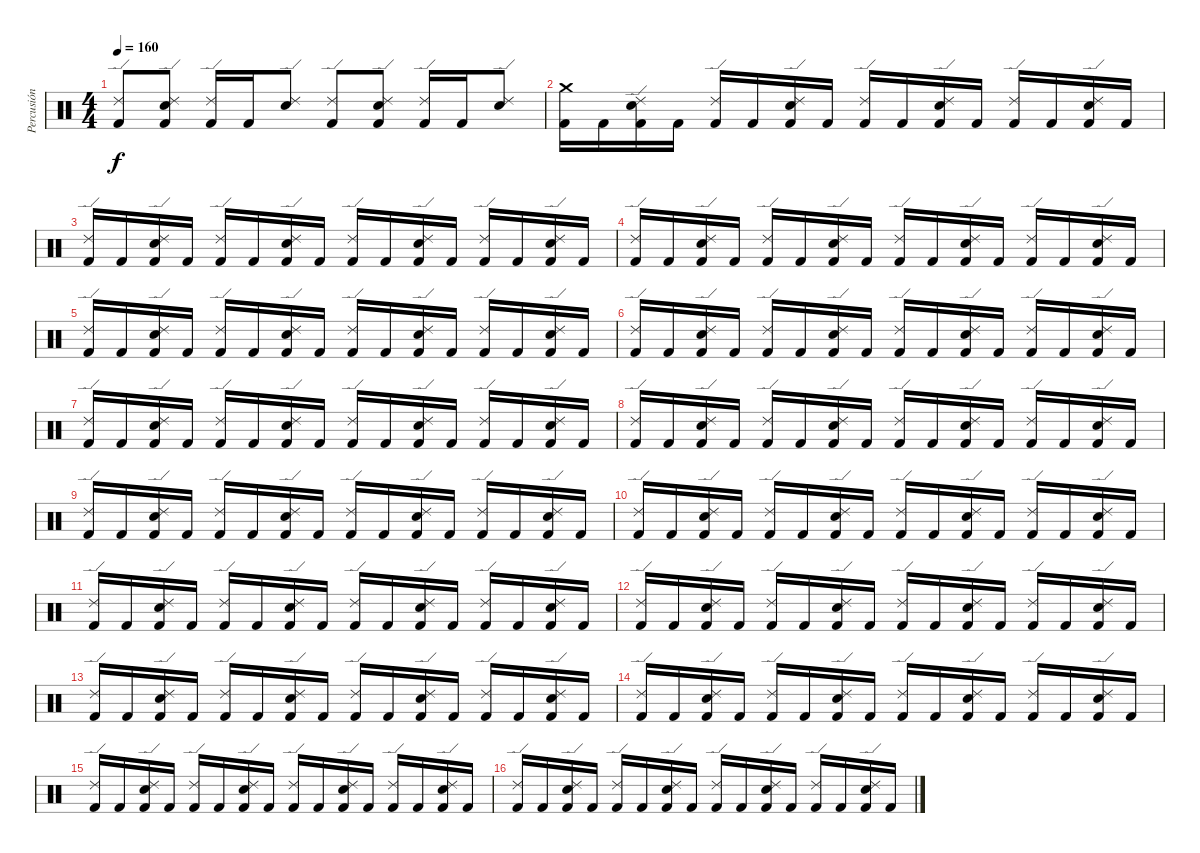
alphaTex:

\track ("Percusión" "Percusión") {instrument percussion}
\staff {score}
\articulation defaults
\ts (4 4)
\tempo 160
\clef neutral
\ks c
("Kick (hit) 2" "Ride (edge) 2").8{dy f} ("Kick (hit) 2" "Snare (hit) 2" "Ride (edge) 2").8 ("Kick (hit) 2" "Ride (edge) 2").16 "Kick (hit) 2".16 ("Snare (hit) 2" "Ride (edge) 2").8 ("Kick (hit) 2" "Ride (edge) 2").8 ("Kick (hit) 2" "Snare (hit) 2" "Ride (edge) 2").8 ("Kick (hit) 2" "Ride (edge) 2").16 "Kick (hit) 2".16 ("Snare (hit) 2" "Ride (edge) 2").8 |
("Kick (hit) 2" "Crash medium (hit)").16 "Kick (hit) 2".16 ("Kick (hit) 2" "Snare (hit) 2" "Ride (edge) 2").16 "Kick (hit) 2".16 ("Kick (hit) 2" "Ride (edge) 2").16 "Kick (hit) 2".16 ("Kick (hit) 2" "Snare (hit) 2" "Ride (edge) 2").16 "Kick (hit) 2".16 ("Kick (hit) 2" "Ride (edge) 2").16 "Kick (hit) 2".16 ("Kick (hit) 2" "Snare (hit) 2" "Ride (edge) 2").16 "Kick (hit) 2".16 ("Kick (hit) 2" "Ride (edge) 2").16 "Kick (hit) 2".16 ("Kick (hit) 2" "Snare (hit) 2" "Ride (edge) 2").16 "Kick (hit) 2".16 |
("Kick (hit) 2" "Ride (edge) 2").16 "Kick (hit) 2".16 ("Kick (hit) 2" "Snare (hit) 2" "Ride (edge) 2").16 "Kick (hit) 2".16 ("Kick (hit) 2" "Ride (edge) 2").16 "Kick (hit) 2".16 ("Kick (hit) 2" "Snare (hit) 2" "Ride (edge) 2").16 "Kick (hit) 2".16 ("Kick (hit) 2" "Ride (edge) 2").16 "Kick (hit) 2".16 ("Kick (hit) 2" "Snare (hit) 2" "Ride (edge) 2").16 "Kick (hit) 2".16 ("Kick (hit) 2" "Ride (edge) 2").16 "Kick (hit) 2".16 ("Kick (hit) 2" "Snare (hit) 2" "Ride (edge) 2").16 "Kick (hit) 2".16 |
("Kick (hit) 2" "Ride (edge) 2").16 "Kick (hit) 2".16 ("Kick (hit) 2" "Snare (hit) 2" "Ride (edge) 2").16 "Kick (hit) 2".16 ("Kick (hit) 2" "Ride (edge) 2").16 "Kick (hit) 2".16 ("Kick (hit) 2" "Snare (hit) 2" "Ride (edge) 2").16 "Kick (hit) 2".16 ("Kick (hit) 2" "Ride (edge) 2").16 "Kick (hit) 2".16 ("Kick (hit) 2" "Snare (hit) 2" "Ride (edge) 2").16 "Kick (hit) 2".16 ("Kick (hit) 2" "Ride (edge) 2").16 "Kick (hit) 2".16 ("Kick (hit) 2" "Snare (hit) 2" "Ride (edge) 2").16 "Kick (hit) 2".16 |
("Kick (hit) 2" "Ride (edge) 2").16 "Kick (hit) 2".16 ("Kick (hit) 2" "Snare (hit) 2" "Ride (edge) 2").16 "Kick (hit) 2".16 ("Kick (hit) 2" "Ride (edge) 2").16 "Kick (hit) 2".16 ("Kick (hit) 2" "Snare (hit) 2" "Ride (edge) 2").16 "Kick (hit) 2".16 ("Kick (hit) 2" "Ride (edge) 2").16 "Kick (hit) 2".16 ("Kick (hit) 2" "Snare (hit) 2" "Ride (edge) 2").16 "Kick (hit) 2".16 ("Kick (hit) 2" "Ride (edge) 2").16 "Kick (hit) 2".16 ("Kick (hit) 2" "Snare (hit) 2" "Ride (edge) 2").16 "Kick (hit) 2".16 |
("Kick (hit) 2" "Ride (edge) 2").16 "Kick (hit) 2".16 ("Kick (hit) 2" "Snare (hit) 2" "Ride (edge) 2").16 "Kick (hit) 2".16 ("Kick (hit) 2" "Ride (edge) 2").16 "Kick (hit) 2".16 ("Kick (hit) 2" "Snare (hit) 2" "Ride (edge) 2").16 "Kick (hit) 2".16 ("Kick (hit) 2" "Ride (edge) 2").16 "Kick (hit) 2".16 ("Kick (hit) 2" "Snare (hit) 2" "Ride (edge) 2").16 "Kick (hit) 2".16 ("Kick (hit) 2" "Ride (edge) 2").16 "Kick (hit) 2".16 ("Kick (hit) 2" "Snare (hit) 2" "Ride (edge) 2").16 "Kick (hit) 2".16 |
("Kick (hit) 2" "Ride (edge) 2").16 "Kick (hit) 2".16 ("Kick (hit) 2" "Snare (hit) 2" "Ride (edge) 2").16 "Kick (hit) 2".16 ("Kick (hit) 2" "Ride (edge) 2").16 "Kick (hit) 2".16 ("Kick (hit) 2" "Snare (hit) 2" "Ride (edge) 2").16 "Kick (hit) 2".16 ("Kick (hit) 2" "Ride (edge) 2").16 "Kick (hit) 2".16 ("Kick (hit) 2" "Snare (hit) 2" "Ride (edge) 2").16 "Kick (hit) 2".16 ("Kick (hit) 2" "Ride (edge) 2").16 "Kick (hit) 2".16 ("Kick (hit) 2" "Snare (hit) 2" "Ride (edge) 2").16 "Kick (hit) 2".16 |
("Kick (hit) 2" "Ride (edge) 2").16 "Kick (hit) 2".16 ("Kick (hit) 2" "Snare (hit) 2" "Ride (edge) 2").16 "Kick (hit) 2".16 ("Kick (hit) 2" "Ride (edge) 2").16 "Kick (hit) 2".16 ("Kick (hit) 2" "Snare (hit) 2" "Ride (edge) 2").16 "Kick (hit) 2".16 ("Kick (hit) 2" "Ride (edge) 2").16 "Kick (hit) 2".16 ("Kick (hit) 2" "Snare (hit) 2" "Ride (edge) 2").16 "Kick (hit) 2".16 ("Kick (hit) 2" "Ride (edge) 2").16 "Kick (hit) 2".16 ("Kick (hit) 2" "Snare (hit) 2" "Ride (edge) 2").16 "Kick (hit) 2".16 |
("Kick (hit) 2" "Ride (edge) 2").16 "Kick (hit) 2".16 ("Kick (hit) 2" "Snare (hit) 2" "Ride (edge) 2").16 "Kick (hit) 2".16 ("Kick (hit) 2" "Ride (edge) 2").16 "Kick (hit) 2".16 ("Kick (hit) 2" "Snare (hit) 2" "Ride (edge) 2").16 "Kick (hit) 2".16 ("Kick (hit) 2" "Ride (edge) 2").16 "Kick (hit) 2".16 ("Kick (hit) 2" "Snare (hit) 2" "Ride (edge) 2").16 "Kick (hit) 2".16 ("Kick (hit) 2" "Ride (edge) 2").16 "Kick (hit) 2".16 ("Kick (hit) 2" "Snare (hit) 2" "Ride (edge) 2").16 "Kick (hit) 2".16 |
("Kick (hit) 2" "Ride (edge) 2").16 "Kick (hit) 2".16 ("Kick (hit) 2" "Snare (hit) 2" "Ride (edge) 2").16 "Kick (hit) 2".16 ("Kick (hit) 2" "Ride (edge) 2").16 "Kick (hit) 2".16 ("Kick (hit) 2" "Snare (hit) 2" "Ride (edge) 2").16 "Kick (hit) 2".16 ("Kick (hit) 2" "Ride (edge) 2").16 "Kick (hit) 2".16 ("Kick (hit) 2" "Snare (hit) 2" "Ride (edge) 2").16 "Kick (hit) 2".16 ("Kick (hit) 2" "Ride (edge) 2").16 "Kick (hit) 2".16 ("Kick (hit) 2" "Snare (hit) 2" "Ride (edge) 2").16 "Kick (hit) 2".16 |
("Kick (hit) 2" "Ride (edge) 2").16 "Kick (hit) 2".16 ("Kick (hit) 2" "Snare (hit) 2" "Ride (edge) 2").16 "Kick (hit) 2".16 ("Kick (hit) 2" "Ride (edge) 2").16 "Kick (hit) 2".16 ("Kick (hit) 2" "Snare (hit) 2" "Ride (edge) 2").16 "Kick (hit) 2".16 ("Kick (hit) 2" "Ride (edge) 2").16 "Kick (hit) 2".16 ("Kick (hit) 2" "Snare (hit) 2" "Ride (edge) 2").16 "Kick (hit) 2".16 ("Kick (hit) 2" "Ride (edge) 2").16 "Kick (hit) 2".16 ("Kick (hit) 2" "Snare (hit) 2" "Ride (edge) 2").16 "Kick (hit) 2".16 |
("Kick (hit) 2" "Ride (edge) 2").16 "Kick (hit) 2".16 ("Kick (hit) 2" "Snare (hit) 2" "Ride (edge) 2").16 "Kick (hit) 2".16 ("Kick (hit) 2" "Ride (edge) 2").16 "Kick (hit) 2".16 ("Kick (hit) 2" "Snare (hit) 2" "Ride (edge) 2").16 "Kick (hit) 2".16 ("Kick (hit) 2" "Ride (edge) 2").16 "Kick (hit) 2".16 ("Kick (hit) 2" "Snare (hit) 2" "Ride (edge) 2").16 "Kick (hit) 2".16 ("Kick (hit) 2" "Ride (edge) 2").16 "Kick (hit) 2".16 ("Kick (hit) 2" "Snare (hit) 2" "Ride (edge) 2").16 "Kick (hit) 2".16 |
("Kick (hit) 2" "Ride (edge) 2").16 "Kick (hit) 2".16 ("Kick (hit) 2" "Snare (hit) 2" "Ride (edge) 2").16 "Kick (hit) 2".16 ("Kick (hit) 2" "Ride (edge) 2").16 "Kick (hit) 2".16 ("Kick (hit) 2" "Snare (hit) 2" "Ride (edge) 2").16 "Kick (hit) 2".16 ("Kick (hit) 2" "Ride (edge) 2").16 "Kick (hit) 2".16 ("Kick (hit) 2" "Snare (hit) 2" "Ride (edge) 2").16 "Kick (hit) 2".16 ("Kick (hit) 2" "Ride (edge) 2").16 "Kick (hit) 2".16 ("Kick (hit) 2" "Snare (hit) 2" "Ride (edge) 2").16 "Kick (hit) 2".16 |
("Kick (hit) 2" "Ride (edge) 2").16 "Kick (hit) 2".16 ("Kick (hit) 2" "Snare (hit) 2" "Ride (edge) 2").16 "Kick (hit) 2".16 ("Kick (hit) 2" "Ride (edge) 2").16 "Kick (hit) 2".16 ("Kick (hit) 2" "Snare (hit) 2" "Ride (edge) 2").16 "Kick (hit) 2".16 ("Kick (hit) 2" "Ride (edge) 2").16 "Kick (hit) 2".16 ("Kick (hit) 2" "Snare (hit) 2" "Ride (edge) 2").16 "Kick (hit) 2".16 ("Kick (hit) 2" "Ride (edge) 2").16 "Kick (hit) 2".16 ("Kick (hit) 2" "Snare (hit) 2" "Ride (edge) 2").16 "Kick (hit) 2".16 |
("Kick (hit) 2" "Ride (edge) 2").16 "Kick (hit) 2".16 ("Kick (hit) 2" "Snare (hit) 2" "Ride (edge) 2").16 "Kick (hit) 2".16 ("Kick (hit) 2" "Ride (edge) 2").16 "Kick (hit) 2".16 ("Kick (hit) 2" "Snare (hit) 2" "Ride (edge) 2").16 "Kick (hit) 2".16 ("Kick (hit) 2" "Ride (edge) 2").16 "Kick (hit) 2".16 ("Kick (hit) 2" "Snare (hit) 2" "Ride (edge) 2").16 "Kick (hit) 2".16 ("Kick (hit) 2" "Ride (edge) 2").16 "Kick (hit) 2".16 ("Kick (hit) 2" "Snare (hit) 2" "Ride (edge) 2").16 "Kick (hit) 2".16 |
("Kick (hit) 2" "Ride (edge) 2").16 "Kick (hit) 2".16 ("Kick (hit) 2" "Snare (hit) 2" "Ride (edge) 2").16 "Kick (hit) 2".16 ("Kick (hit) 2" "Ride (edge) 2").16 "Kick (hit) 2".16 ("Kick (hit) 2" "Snare (hit) 2" "Ride (edge) 2").16 "Kick (hit) 2".16 ("Kick (hit) 2" "Ride (edge) 2").16 "Kick (hit) 2".16 ("Kick (hit) 2" "Snare (hit) 2" "Ride (edge) 2").16 "Kick (hit) 2".16 ("Kick (hit) 2" "Ride (edge) 2").16 "Kick (hit) 2".16 ("Kick (hit) 2" "Snare (hit) 2" "Ride (edge) 2").16 "Kick (hit) 2".16
